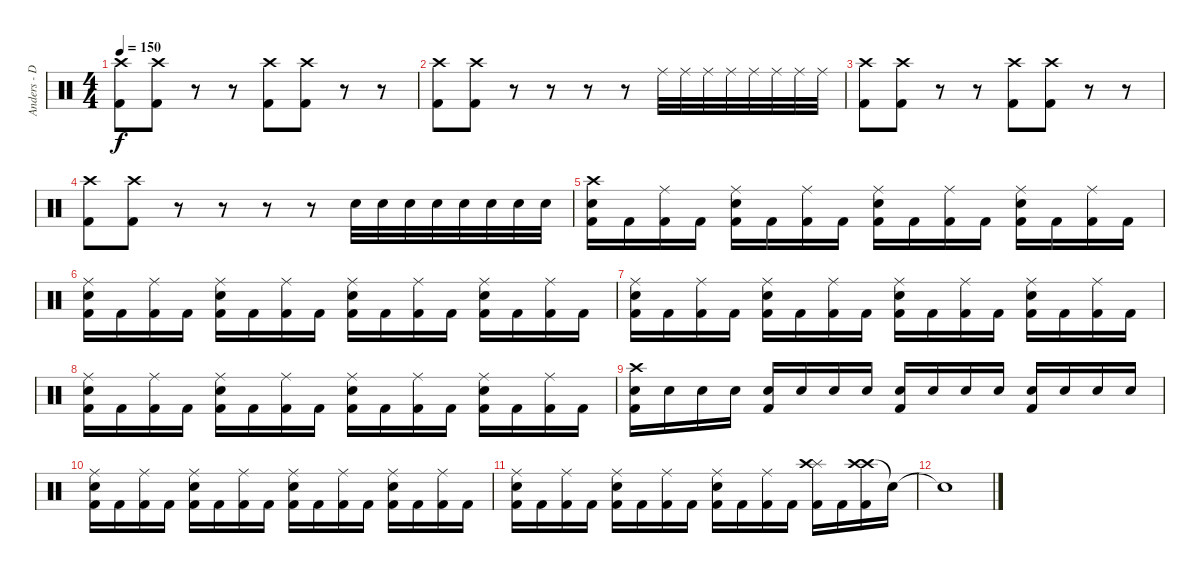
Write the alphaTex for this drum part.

\track ("Anders - Drums" "Anders - D") {instrument percussion}
\staff {score}
\articulation defaults
\ts (4 4)
\tempo 150
\clef neutral
\ks c
("Crash high (hit)" "Kick (hit) 2").8{dy f} ("Crash high (hit)" "Kick (hit) 2").8 r.8 r.8 ("Crash high (hit)" "Kick (hit) 2").8 ("Crash high (hit)" "Kick (hit) 2").8 r.8 r.8 |
("Crash high (hit)" "Kick (hit) 2").8 ("Crash high (hit)" "Kick (hit) 2").8 r.8 r.8 r.8 r.8 "Ride (middle)".32 "Ride (middle)".32 "Ride (middle)".32 "Ride (middle)".32 "Ride (middle)".32 "Ride (middle)".32 "Ride (middle)".32 "Ride (middle)".32 |
("Crash high (hit)" "Kick (hit) 2").8 ("Crash high (hit)" "Kick (hit) 2").8 r.8 r.8 ("Crash high (hit)" "Kick (hit) 2").8 ("Crash high (hit)" "Kick (hit) 2").8 r.8 r.8 |
("Crash high (hit)" "Kick (hit) 2").8 ("Crash high (hit)" "Kick (hit) 2").8 r.8 r.8 r.8 r.8 "Snare (hit) 2".32 "Snare (hit) 2".32 "Snare (hit) 2".32 "Snare (hit) 2".32 "Snare (hit) 2".32 "Snare (hit) 2".32 "Snare (hit) 2".32 "Snare (hit) 2".32 |
("Crash high (hit)" "Snare (hit) 2" "Kick (hit) 2").16 "Kick (hit) 2".16 ("Ride (middle)" "Kick (hit) 2").16 "Kick (hit) 2".16 ("Ride (middle)" "Snare (hit) 2" "Kick (hit) 2").16 "Kick (hit) 2".16 ("Ride (middle)" "Kick (hit) 2").16 "Kick (hit) 2".16 ("Ride (middle)" "Snare (hit) 2" "Kick (hit) 2").16 "Kick (hit) 2".16 ("Ride (middle)" "Kick (hit) 2").16 "Kick (hit) 2".16 ("Ride (middle)" "Snare (hit) 2" "Kick (hit) 2").16 "Kick (hit) 2".16 ("Ride (middle)" "Kick (hit) 2").16 "Kick (hit) 2".16 |
("Ride (middle)" "Snare (hit) 2" "Kick (hit) 2").16 "Kick (hit) 2".16 ("Ride (middle)" "Kick (hit) 2").16 "Kick (hit) 2".16 ("Ride (middle)" "Snare (hit) 2" "Kick (hit) 2").16 "Kick (hit) 2".16 ("Ride (middle)" "Kick (hit) 2").16 "Kick (hit) 2".16 ("Ride (middle)" "Snare (hit) 2" "Kick (hit) 2").16 "Kick (hit) 2".16 ("Ride (middle)" "Kick (hit) 2").16 "Kick (hit) 2".16 ("Ride (middle)" "Snare (hit) 2" "Kick (hit) 2").16 "Kick (hit) 2".16 ("Ride (middle)" "Kick (hit) 2").16 "Kick (hit) 2".16 |
("Ride (middle)" "Snare (hit) 2" "Kick (hit) 2").16 "Kick (hit) 2".16 ("Ride (middle)" "Kick (hit) 2").16 "Kick (hit) 2".16 ("Ride (middle)" "Snare (hit) 2" "Kick (hit) 2").16 "Kick (hit) 2".16 ("Ride (middle)" "Kick (hit) 2").16 "Kick (hit) 2".16 ("Ride (middle)" "Snare (hit) 2" "Kick (hit) 2").16 "Kick (hit) 2".16 ("Ride (middle)" "Kick (hit) 2").16 "Kick (hit) 2".16 ("Ride (middle)" "Snare (hit) 2" "Kick (hit) 2").16 "Kick (hit) 2".16 ("Ride (middle)" "Kick (hit) 2").16 "Kick (hit) 2".16 |
("Ride (middle)" "Snare (hit) 2" "Kick (hit) 2").16 "Kick (hit) 2".16 ("Ride (middle)" "Kick (hit) 2").16 "Kick (hit) 2".16 ("Ride (middle)" "Snare (hit) 2" "Kick (hit) 2").16 "Kick (hit) 2".16 ("Ride (middle)" "Kick (hit) 2").16 "Kick (hit) 2".16 ("Ride (middle)" "Snare (hit) 2" "Kick (hit) 2").16 "Kick (hit) 2".16 ("Ride (middle)" "Kick (hit) 2").16 "Kick (hit) 2".16 ("Ride (middle)" "Snare (hit) 2" "Kick (hit) 2").16 "Kick (hit) 2".16 ("Ride (middle)" "Kick (hit) 2").16 "Kick (hit) 2".16 |
("Crash high (hit)" "Snare (hit) 2" "Kick (hit) 2").16 "Snare (hit) 2".16 "Snare (hit) 2".16 "Snare (hit) 2".16 ("Snare (hit) 2" "Kick (hit) 2").16 "Snare (hit) 2".16 "Snare (hit) 2".16 "Snare (hit) 2".16 ("Snare (hit) 2" "Kick (hit) 2").16 "Snare (hit) 2".16 "Snare (hit) 2".16 "Snare (hit) 2".16 ("Snare (hit) 2" "Kick (hit) 2").16 "Snare (hit) 2".16 "Snare (hit) 2".16 "Snare (hit) 2".16 |
("Ride (middle)" "Snare (hit) 2" "Kick (hit) 2").16 "Kick (hit) 2".16 ("Ride (middle)" "Kick (hit) 2").16 "Kick (hit) 2".16 ("Ride (middle)" "Snare (hit) 2" "Kick (hit) 2").16 "Kick (hit) 2".16 ("Ride (middle)" "Kick (hit) 2").16 "Kick (hit) 2".16 ("Ride (middle)" "Snare (hit) 2" "Kick (hit) 2").16 "Kick (hit) 2".16 ("Ride (middle)" "Kick (hit) 2").16 "Kick (hit) 2".16 ("Ride (middle)" "Snare (hit) 2" "Kick (hit) 2").16 "Kick (hit) 2".16 ("Ride (middle)" "Kick (hit) 2").16 "Kick (hit) 2".16 |
("Ride (middle)" "Snare (hit) 2" "Kick (hit) 2").16 "Kick (hit) 2".16 ("Ride (middle)" "Kick (hit) 2").16 "Kick (hit) 2".16 ("Ride (middle)" "Snare (hit) 2" "Kick (hit) 2").16 "Kick (hit) 2".16 ("Ride (middle)" "Kick (hit) 2").16 "Kick (hit) 2".16 ("Ride (middle)" "Snare (hit) 2" "Kick (hit) 2").16 "Kick (hit) 2".16 ("Ride (middle)" "Kick (hit) 2").16 "Kick (hit) 2".16 ("Splash (hit)" "Crash high (hit)" "Kick (hit) 2").16 "Kick (hit) 2".16 ("Crash high (hit)" "Crash high (hit)" "Kick (hit) 2").16 "Snare (hit)"{t}.16 |
"Snare (hit)"{t}.1
